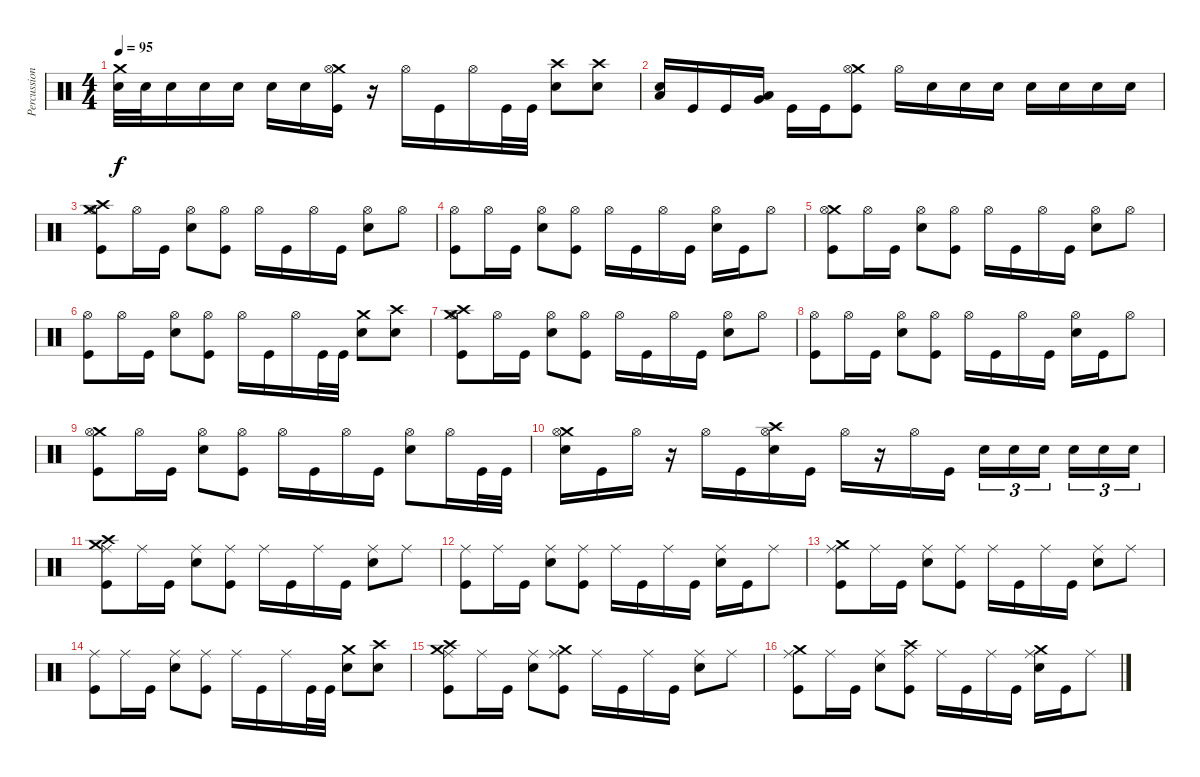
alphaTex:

\track ("Percussion" "Percussion") {instrument percussion}
\staff {score}
\articulation defaults
\ts (4 4)
\tempo 95
\clef neutral
\ks c
("Crash medium (hit)" "Snare (hit) 2").32{dy f} "Snare (hit) 2".32 "Snare (hit) 2".16 "Snare (hit) 2".16 "Snare (hit) 2".16 "Snare (hit) 2".16 "Snare (hit) 2".16 ("Crash medium (hit)" "Hi-Hat (open)" "Kick (hit)").16 r.16 "Hi-Hat (open)".16 "Kick (hit)".16 "Hi-Hat (open)".16 "Kick (hit)".32 "Kick (hit)".32 ("Crash high (hit)" "Snare (hit) 2").8 ("Crash high (hit)" "Snare (hit) 2").8 |
("Low Floor Tom (hit)" "Snare (hit) 2").16 "Kick (hit)".16 "Kick (hit)".16 ("Low Floor Tom (hit)" "Very Low Tom (hit)").16 "Kick (hit)".16 "Kick (hit)".16 ("Crash medium (hit)" "Hi-Hat (open)" "Kick (hit)").8 "Hi-Hat (open)".16 "Snare (hit) 2".16 "Snare (hit) 2".16 "Snare (hit) 2".16 "Snare (hit) 2".16 "Snare (hit) 2".16 "Snare (hit) 2".16 "Snare (hit) 2".16 |
("Crash high (hit)" "Crash medium (hit)" "Hi-Hat (open)" "Kick (hit)").8 "Hi-Hat (open)".16 "Kick (hit)".16 ("Hi-Hat (open)" "Snare (hit) 2").8 ("Hi-Hat (open)" "Kick (hit)").8 "Hi-Hat (open)".16 "Kick (hit)".16 "Hi-Hat (open)".16 "Kick (hit)".16 ("Hi-Hat (open)" "Snare (hit) 2").8 "Hi-Hat (open)".8 |
("Hi-Hat (open)" "Kick (hit)").8 "Hi-Hat (open)".16 "Kick (hit)".16 ("Hi-Hat (open)" "Snare (hit) 2").8 ("Hi-Hat (open)" "Kick (hit)").8 "Hi-Hat (open)".16 "Kick (hit)".16 "Hi-Hat (open)".16 "Kick (hit)".16 ("Hi-Hat (open)" "Snare (hit) 2").16 "Kick (hit)".16 "Hi-Hat (open)".8 |
("Crash medium (hit)" "Hi-Hat (open)" "Kick (hit)").8 "Hi-Hat (open)".16 "Kick (hit)".16 ("Hi-Hat (open)" "Snare (hit) 2").8 ("Hi-Hat (open)" "Kick (hit)").8 "Hi-Hat (open)".16 "Kick (hit)".16 "Hi-Hat (open)".16 "Kick (hit)".16 ("Hi-Hat (open)" "Snare (hit) 2").8 "Hi-Hat (open)".8 |
("Hi-Hat (open)" "Kick (hit)").8 "Hi-Hat (open)".16 "Kick (hit)".16 ("Hi-Hat (open)" "Snare (hit) 2").8 ("Hi-Hat (open)" "Kick (hit)").8 "Hi-Hat (open)".16 "Kick (hit)".16 "Hi-Hat (open)".16 "Kick (hit)".32 "Kick (hit)".32 ("Crash medium (hit)" "Snare (hit) 2").8 ("Crash high (hit)" "Snare (hit) 2").8 |
("Crash high (hit)" "Crash medium (hit)" "Hi-Hat (open)" "Kick (hit)").8 "Hi-Hat (open)".16 "Kick (hit)".16 ("Hi-Hat (open)" "Snare (hit) 2").8 ("Hi-Hat (open)" "Kick (hit)").8 "Hi-Hat (open)".16 "Kick (hit)".16 "Hi-Hat (open)".16 "Kick (hit)".16 ("Hi-Hat (open)" "Snare (hit) 2").8 "Hi-Hat (open)".8 |
("Hi-Hat (open)" "Kick (hit)").8 "Hi-Hat (open)".16 "Kick (hit)".16 ("Hi-Hat (open)" "Snare (hit) 2").8 ("Hi-Hat (open)" "Kick (hit)").8 "Hi-Hat (open)".16 "Kick (hit)".16 "Hi-Hat (open)".16 "Kick (hit)".16 ("Hi-Hat (open)" "Snare (hit) 2").16 "Kick (hit)".16 "Hi-Hat (open)".8 |
("Crash medium (hit)" "Hi-Hat (open)" "Kick (hit)").8 "Hi-Hat (open)".16 "Kick (hit)".16 ("Hi-Hat (open)" "Snare (hit) 2").8 ("Hi-Hat (open)" "Kick (hit)").8 "Hi-Hat (open)".16 "Kick (hit)".16 "Hi-Hat (open)".16 "Kick (hit)".16 ("Hi-Hat (open)" "Snare (hit) 2").8 "Hi-Hat (open)".16 "Kick (hit)".32 "Kick (hit)".32 |
("Crash medium (hit)" "Hi-Hat (open)" "Snare (hit) 2").16 "Kick (hit)".16 "Hi-Hat (open)".16 r.16 "Hi-Hat (open)".16 "Kick (hit)".16 ("Crash high (hit)" "Hi-Hat (open)" "Snare (hit) 2").16 "Kick (hit)".16 "Hi-Hat (open)".16 r.16 "Hi-Hat (open)".16 "Kick (hit)".16 "Snare (hit) 2".16{tu (3 2)} "Snare (hit) 2".16{tu (3 2)} "Snare (hit) 2".16{tu (3 2) beam splitsecondary} "Snare (hit) 2".16{tu (3 2)} "Snare (hit) 2".16{tu (3 2)} "Snare (hit) 2".16{tu (3 2)} |
("Crash high (hit)" "Crash medium (hit)" "Ride (middle)" "Kick (hit)").8 "Ride (middle)".16 "Kick (hit)".16 ("Ride (middle)" "Snare (hit) 2").8 ("Ride (middle)" "Kick (hit)").8 "Ride (middle)".16 "Kick (hit)".16 "Ride (middle)".16 "Kick (hit)".16 ("Ride (middle)" "Snare (hit) 2").8 "Ride (middle)".8 |
("Ride (middle)" "Kick (hit)").8 "Ride (middle)".16 "Kick (hit)".16 ("Ride (middle)" "Snare (hit) 2").8 ("Ride (middle)" "Kick (hit)").8 "Ride (middle)".16 "Kick (hit)".16 "Ride (middle)".16 "Kick (hit)".16 ("Ride (middle)" "Snare (hit) 2").16 "Kick (hit)".16 "Ride (middle)".8 |
("Crash medium (hit)" "Ride (middle)" "Kick (hit)").8 "Ride (middle)".16 "Kick (hit)".16 ("Ride (middle)" "Snare (hit) 2").8 ("Ride (middle)" "Kick (hit)").8 "Ride (middle)".16 "Kick (hit)".16 "Ride (middle)".16 "Kick (hit)".16 ("Ride (middle)" "Snare (hit) 2").8 "Ride (middle)".8 |
("Ride (middle)" "Kick (hit)").8 "Ride (middle)".16 "Kick (hit)".16 ("Ride (middle)" "Snare (hit) 2").8 ("Ride (middle)" "Kick (hit)").8 "Ride (middle)".16 "Kick (hit)".16 "Ride (middle)".16 "Kick (hit)".32 "Kick (hit)".32 ("Crash medium (hit)" "Snare (hit) 2").8 ("Crash high (hit)" "Snare (hit) 2").8 |
("Crash high (hit)" "Crash medium (hit)" "Ride (middle)" "Kick (hit)").8 "Ride (middle)".16 "Kick (hit)".16 ("Ride (middle)" "Snare (hit) 2").8 ("Crash medium (hit)" "Ride (middle)" "Kick (hit)").8 "Ride (middle)".16 "Kick (hit)".16 "Ride (middle)".16 "Kick (hit)".16 ("Ride (middle)" "Snare (hit) 2").8 "Ride (middle)".8 |
("Crash medium (hit)" "Ride (middle)" "Kick (hit)").8 "Ride (middle)".16 "Kick (hit)".16 ("Ride (middle)" "Snare (hit) 2").8 ("Crash high (hit)" "Ride (middle)" "Kick (hit)").8 "Ride (middle)".16 "Kick (hit)".16 "Ride (middle)".16 "Kick (hit)".16 ("Crash medium (hit)" "Ride (middle)" "Snare (hit) 2").16 "Kick (hit)".16 "Ride (middle)".8
